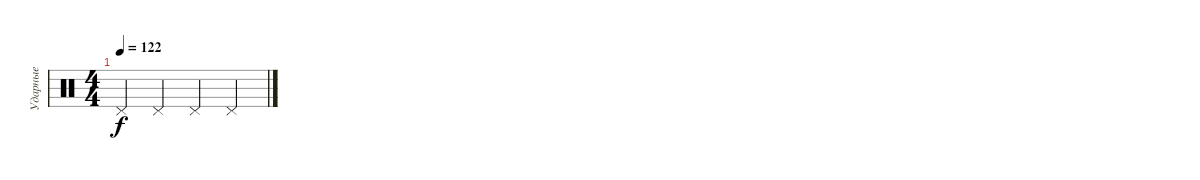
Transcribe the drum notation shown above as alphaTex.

\track ("Ударные" "Ударные") {instrument percussion}
\staff {score}
\articulation defaults
\ts (4 4)
\tempo 122
\clef neutral
\ks c "Pedal Hi-Hat (hit)".4{dy f} "Pedal Hi-Hat (hit)".4 "Pedal Hi-Hat (hit)".4 "Pedal Hi-Hat (hit)".4
